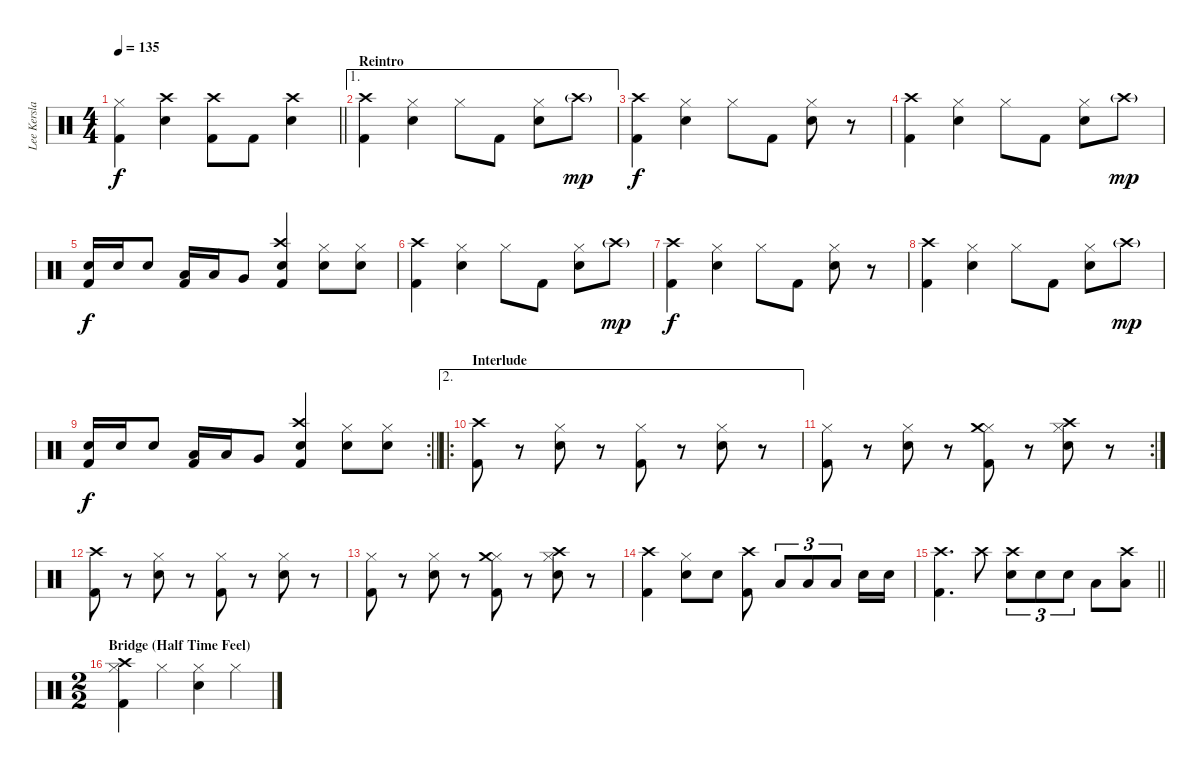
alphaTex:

\track ("Lee Kerslake" "Lee Kersla") {instrument percussion}
\staff {score}
\articulation defaults
\ts (4 4)
\tempo 135
\clef neutral
\barLineRight lightlight
\ks c
("Hi-Hat (closed)" "Kick (hit) 2").4{dy f} ("Crash high (hit)" "Electric Snare (hit)").4 ("Crash high (hit)" "Kick (hit) 2").8 "Kick (hit) 2".8 ("Crash high (hit)" "Electric Snare (hit)").4 |
\ae 1
\section ("" "Reintro")
("Crash high (hit)" "Kick (hit) 2").4 ("Hi-Hat (closed)" "Electric Snare (hit)").4 "Hi-Hat (closed)".8 "Kick (hit) 2".8 ("Hi-Hat (closed)" "Electric Snare (hit)").8 "Crash high (hit)"{g}.8{dy mp} |
("Crash high (hit)" "Kick (hit) 2").4{dy f} ("Hi-Hat (closed)" "Electric Snare (hit)").4 "Hi-Hat (closed)".8 "Kick (hit) 2".8 ("Hi-Hat (closed)" "Electric Snare (hit)").8 r.8 |
("Crash high (hit)" "Kick (hit) 2").4 ("Hi-Hat (closed)" "Electric Snare (hit)").4 "Hi-Hat (closed)".8 "Kick (hit) 2".8 ("Hi-Hat (closed)" "Electric Snare (hit)").8 "Crash high (hit)"{g}.8{dy mp} |
("Electric Snare (hit)" "Kick (hit) 2").16{dy f} "Electric Snare (hit)".16 "Electric Snare (hit)".8 ("Low Floor Tom (hit)" "Kick (hit) 2").16 "Low Floor Tom (hit)".16 "Very Low Tom (hit)".8 ("Crash high (hit)" "Electric Snare (hit)" "Kick (hit) 2").4 ("Hi-Hat (closed)" "Electric Snare (hit)").8 ("Hi-Hat (closed)" "Electric Snare (hit)").8 |
("Crash high (hit)" "Kick (hit) 2").4 ("Hi-Hat (closed)" "Electric Snare (hit)").4 "Hi-Hat (closed)".8 "Kick (hit) 2".8 ("Hi-Hat (closed)" "Electric Snare (hit)").8 "Crash high (hit)"{g}.8{dy mp} |
("Crash high (hit)" "Kick (hit) 2").4{dy f} ("Hi-Hat (closed)" "Electric Snare (hit)").4 "Hi-Hat (closed)".8 "Kick (hit) 2".8 ("Hi-Hat (closed)" "Electric Snare (hit)").8 r.8 |
("Crash high (hit)" "Kick (hit) 2").4 ("Hi-Hat (closed)" "Electric Snare (hit)").4 "Hi-Hat (closed)".8 "Kick (hit) 2".8 ("Hi-Hat (closed)" "Electric Snare (hit)").8 "Crash high (hit)"{g}.8{dy mp} |
\rc 2
\barLineRight lightlight
("Electric Snare (hit)" "Kick (hit) 2").16{dy f} "Electric Snare (hit)".16 "Electric Snare (hit)".8 ("Low Floor Tom (hit)" "Kick (hit) 2").16 "Low Floor Tom (hit)".16 "Very Low Tom (hit)".8 ("Crash high (hit)" "Electric Snare (hit)" "Kick (hit) 2").4 ("Hi-Hat (closed)" "Electric Snare (hit)").8 ("Hi-Hat (closed)" "Electric Snare (hit)").8 |
\ae 2
\ro
\section ("" "Interlude")
("Crash high (hit)" "Kick (hit) 2").8 r.8 ("Hi-Hat (closed)" "Snare (hit) 2").8 r.8 ("Hi-Hat (closed)" "Kick (hit) 2").8 r.8 ("Hi-Hat (closed)" "Snare (hit) 2").8 r.8 |
\rc 2
("Hi-Hat (closed)" "Kick (hit) 2").8 r.8 ("Hi-Hat (closed)" "Snare (hit) 2").8 r.8 ("Hi-Hat (closed)" "Kick (hit) 2" "Crash medium (hit)").8 r.8 ("Hi-Hat (closed)" "Snare (hit) 2" "Crash high (hit)").8 r.8 |
("Crash high (hit)" "Kick (hit) 2").8 r.8 ("Hi-Hat (closed)" "Snare (hit) 2").8 r.8 ("Hi-Hat (closed)" "Kick (hit) 2").8 r.8 ("Hi-Hat (closed)" "Snare (hit) 2").8 r.8 |
("Hi-Hat (closed)" "Kick (hit) 2").8 r.8 ("Hi-Hat (closed)" "Snare (hit) 2").8 r.8 ("Hi-Hat (closed)" "Kick (hit) 2" "Crash medium (hit)").8 r.8 ("Hi-Hat (closed)" "Snare (hit) 2" "Crash high (hit)").8 r.8 |
("Crash high (hit)" "Kick (hit) 2").4 ("Hi-Hat (closed)" "Electric Snare (hit)").8 "Snare (hit) 2".8 ("Crash high (hit)" "Kick (hit) 2").8 "Low Floor Tom (hit)".8{tu (3 2)} "Low Floor Tom (hit)".8{tu (3 2)} "Low Floor Tom (hit)".8{tu (3 2)} "Snare (hit) 2".16 "Snare (hit) 2".16 |
\barLineRight lightlight
("Crash high (hit)" "Kick (hit) 2").4{d} "Crash high (hit)".8 ("Crash high (hit)" "Snare (hit) 2").8{tu (3 2)} "Snare (hit) 2".8{tu (3 2)} "Snare (hit) 2".8{tu (3 2)} "Low Floor Tom (hit)".8 ("Crash high (hit)" "Low Floor Tom (hit)").8 |
\ts (2 2)
\section ("" "Bridge (Half Time Feel)")
("Kick (hit) 2" "Hi-Hat (closed)" "Crash high (hit)").4 "Hi-Hat (closed)".4 ("Snare (hit) 2" "Hi-Hat (closed)").4 "Hi-Hat (closed)".4
